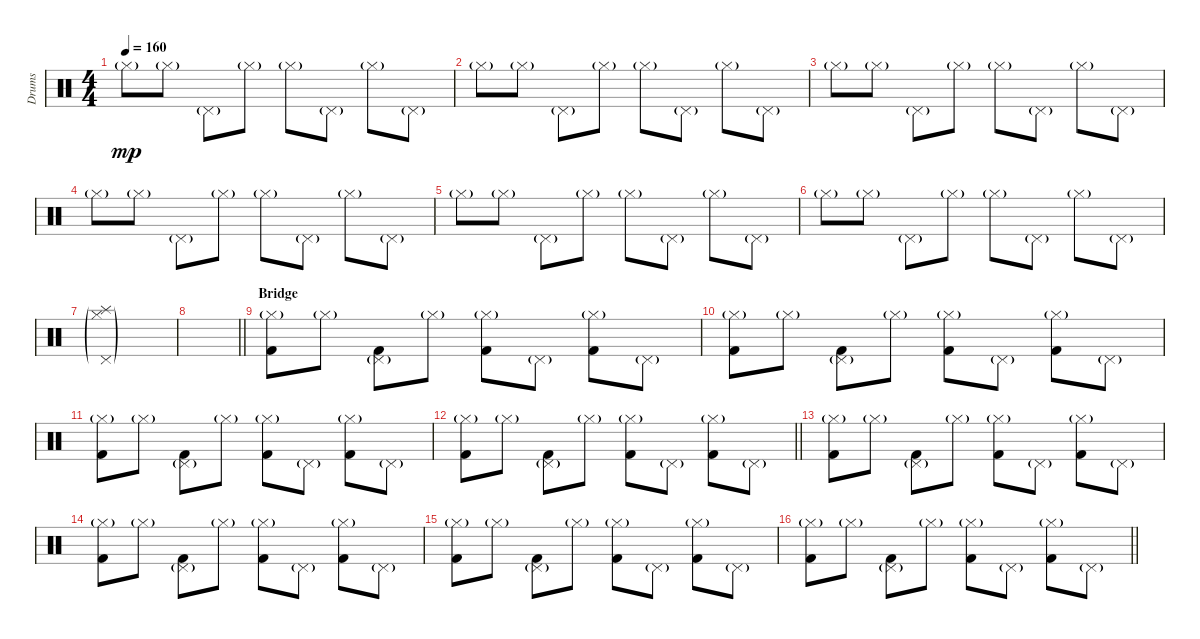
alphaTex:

\track ("Drums" "Drums") {instrument percussion}
\staff {score}
\articulation defaults
\ts (4 4)
\tempo 160
\clef neutral
\ks c "Hi-Hat (closed)"{g}.8{dy mp} "Hi-Hat (closed)"{g}.8 "Pedal Hi-Hat (hit)"{g}.8 "Hi-Hat (closed)"{g}.8 "Hi-Hat (closed)"{g}.8 "Pedal Hi-Hat (hit)"{g}.8 "Hi-Hat (closed)"{g}.8 "Pedal Hi-Hat (hit)"{g}.8
|
"Hi-Hat (closed)"{g}.8 "Hi-Hat (closed)"{g}.8 "Pedal Hi-Hat (hit)"{g}.8 "Hi-Hat (closed)"{g}.8 "Hi-Hat (closed)"{g}.8 "Pedal Hi-Hat (hit)"{g}.8 "Hi-Hat (closed)"{g}.8 "Pedal Hi-Hat (hit)"{g}.8 |
"Hi-Hat (closed)"{g}.8 "Hi-Hat (closed)"{g}.8 "Pedal Hi-Hat (hit)"{g}.8 "Hi-Hat (closed)"{g}.8 "Hi-Hat (closed)"{g}.8 "Pedal Hi-Hat (hit)"{g}.8 "Hi-Hat (closed)"{g}.8 "Pedal Hi-Hat (hit)"{g}.8 |
"Hi-Hat (closed)"{g}.8 "Hi-Hat (closed)"{g}.8 "Pedal Hi-Hat (hit)"{g}.8 "Hi-Hat (closed)"{g}.8 "Hi-Hat (closed)"{g}.8 "Pedal Hi-Hat (hit)"{g}.8 "Hi-Hat (closed)"{g}.8 "Pedal Hi-Hat (hit)"{g}.8 |
"Hi-Hat (closed)"{g}.8 "Hi-Hat (closed)"{g}.8 "Pedal Hi-Hat (hit)"{g}.8 "Hi-Hat (closed)"{g}.8 "Hi-Hat (closed)"{g}.8 "Pedal Hi-Hat (hit)"{g}.8 "Hi-Hat (closed)"{g}.8 "Pedal Hi-Hat (hit)"{g}.8 |
"Hi-Hat (closed)"{g}.8 "Hi-Hat (closed)"{g}.8 "Pedal Hi-Hat (hit)"{g}.8 "Hi-Hat (closed)"{g}.8 "Hi-Hat (closed)"{g}.8 "Pedal Hi-Hat (hit)"{g}.8 "Hi-Hat (closed)"{g}.8 "Pedal Hi-Hat (hit)"{g}.8 |
("Hi-Hat (closed)"{g} "Pedal Hi-Hat (hit)"{g} "Splash (hit)"{g}).1 |
\barLineRight lightlight
|
\section ("" "Bridge")
("Hi-Hat (closed)"{g} "Kick (hit) 2").8 "Hi-Hat (closed)"{g}.8 ("Pedal Hi-Hat (hit)"{g} "Kick (hit) 2").8 "Hi-Hat (closed)"{g}.8 ("Hi-Hat (closed)"{g} "Kick (hit) 2").8 "Pedal Hi-Hat (hit)"{g}.8 ("Hi-Hat (closed)"{g} "Kick (hit) 2").8 "Pedal Hi-Hat (hit)"{g}.8 |
("Hi-Hat (closed)"{g} "Kick (hit) 2").8 "Hi-Hat (closed)"{g}.8 ("Pedal Hi-Hat (hit)"{g} "Kick (hit) 2").8 "Hi-Hat (closed)"{g}.8 ("Hi-Hat (closed)"{g} "Kick (hit) 2").8 "Pedal Hi-Hat (hit)"{g}.8 ("Hi-Hat (closed)"{g} "Kick (hit) 2").8 "Pedal Hi-Hat (hit)"{g}.8 |
("Hi-Hat (closed)"{g} "Kick (hit) 2").8 "Hi-Hat (closed)"{g}.8 ("Pedal Hi-Hat (hit)"{g} "Kick (hit) 2").8 "Hi-Hat (closed)"{g}.8 ("Hi-Hat (closed)"{g} "Kick (hit) 2").8 "Pedal Hi-Hat (hit)"{g}.8 ("Hi-Hat (closed)"{g} "Kick (hit) 2").8 "Pedal Hi-Hat (hit)"{g}.8 |
\barLineRight lightlight
("Hi-Hat (closed)"{g} "Kick (hit) 2").8 "Hi-Hat (closed)"{g}.8 ("Pedal Hi-Hat (hit)"{g} "Kick (hit) 2").8 "Hi-Hat (closed)"{g}.8 ("Hi-Hat (closed)"{g} "Kick (hit) 2").8 "Pedal Hi-Hat (hit)"{g}.8 ("Hi-Hat (closed)"{g} "Kick (hit) 2").8 "Pedal Hi-Hat (hit)"{g}.8 |
("Hi-Hat (closed)"{g} "Kick (hit) 2").8 "Hi-Hat (closed)"{g}.8 ("Pedal Hi-Hat (hit)"{g} "Kick (hit) 2").8 "Hi-Hat (closed)"{g}.8 ("Hi-Hat (closed)"{g} "Kick (hit) 2").8 "Pedal Hi-Hat (hit)"{g}.8 ("Hi-Hat (closed)"{g} "Kick (hit) 2").8 "Pedal Hi-Hat (hit)"{g}.8 |
("Hi-Hat (closed)"{g} "Kick (hit) 2").8 "Hi-Hat (closed)"{g}.8 ("Pedal Hi-Hat (hit)"{g} "Kick (hit) 2").8 "Hi-Hat (closed)"{g}.8 ("Hi-Hat (closed)"{g} "Kick (hit) 2").8 "Pedal Hi-Hat (hit)"{g}.8 ("Hi-Hat (closed)"{g} "Kick (hit) 2").8 "Pedal Hi-Hat (hit)"{g}.8 |
("Hi-Hat (closed)"{g} "Kick (hit) 2").8 "Hi-Hat (closed)"{g}.8 ("Pedal Hi-Hat (hit)"{g} "Kick (hit) 2").8 "Hi-Hat (closed)"{g}.8 ("Hi-Hat (closed)"{g} "Kick (hit) 2").8 "Pedal Hi-Hat (hit)"{g}.8 ("Hi-Hat (closed)"{g} "Kick (hit) 2").8 "Pedal Hi-Hat (hit)"{g}.8 |
\barLineRight lightlight
("Hi-Hat (closed)"{g} "Kick (hit) 2").8 "Hi-Hat (closed)"{g}.8 ("Pedal Hi-Hat (hit)"{g} "Kick (hit) 2").8 "Hi-Hat (closed)"{g}.8 ("Hi-Hat (closed)"{g} "Kick (hit) 2").8 "Pedal Hi-Hat (hit)"{g}.8 ("Hi-Hat (closed)"{g} "Kick (hit) 2").8 "Pedal Hi-Hat (hit)"{g}.8
